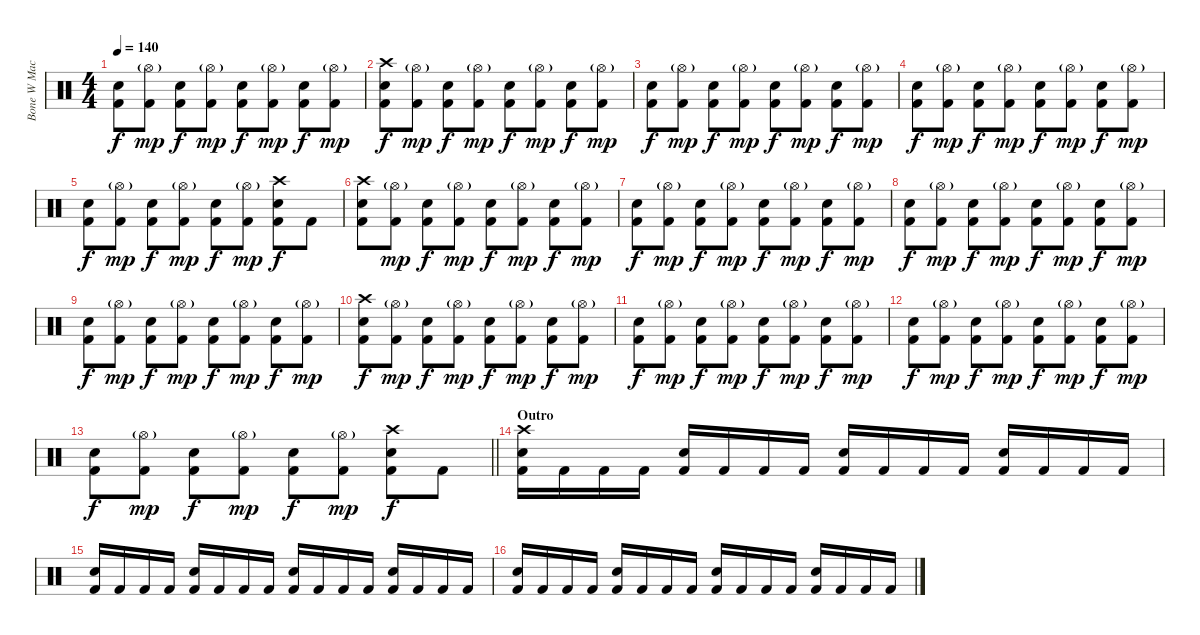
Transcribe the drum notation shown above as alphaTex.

\track ("Bone W Machine" "Bone W Mac") {instrument percussion}
\staff {score}
\articulation defaults
\ts (4 4)
\tempo 140
\clef neutral
\ks c
("Electric Snare (hit)" "Kick (hit) 2").8{dy f} ("Hi-Hat (open)"{g} "Kick (hit) 2").8{dy mp} ("Electric Snare (hit)" "Kick (hit) 2").8{dy f} ("Hi-Hat (open)"{g} "Kick (hit) 2").8{dy mp} ("Electric Snare (hit)" "Kick (hit) 2").8{dy f} ("Hi-Hat (open)"{g} "Kick (hit) 2").8{dy mp} ("Electric Snare (hit)" "Kick (hit) 2").8{dy f} ("Hi-Hat (open)"{g} "Kick (hit) 2").8{dy mp} |
("Crash high (hit)" "Electric Snare (hit)" "Kick (hit) 2").8{dy f} ("Hi-Hat (open)"{g} "Kick (hit) 2").8{dy mp} ("Electric Snare (hit)" "Kick (hit) 2").8{dy f} ("Hi-Hat (open)"{g} "Kick (hit) 2").8{dy mp} ("Electric Snare (hit)" "Kick (hit) 2").8{dy f} ("Hi-Hat (open)"{g} "Kick (hit) 2").8{dy mp} ("Electric Snare (hit)" "Kick (hit) 2").8{dy f} ("Hi-Hat (open)"{g} "Kick (hit) 2").8{dy mp} |
("Electric Snare (hit)" "Kick (hit) 2").8{dy f} ("Hi-Hat (open)"{g} "Kick (hit) 2").8{dy mp} ("Electric Snare (hit)" "Kick (hit) 2").8{dy f} ("Hi-Hat (open)"{g} "Kick (hit) 2").8{dy mp} ("Electric Snare (hit)" "Kick (hit) 2").8{dy f} ("Hi-Hat (open)"{g} "Kick (hit) 2").8{dy mp} ("Electric Snare (hit)" "Kick (hit) 2").8{dy f} ("Hi-Hat (open)"{g} "Kick (hit) 2").8{dy mp} |
("Electric Snare (hit)" "Kick (hit) 2").8{dy f} ("Hi-Hat (open)"{g} "Kick (hit) 2").8{dy mp} ("Electric Snare (hit)" "Kick (hit) 2").8{dy f} ("Hi-Hat (open)"{g} "Kick (hit) 2").8{dy mp} ("Electric Snare (hit)" "Kick (hit) 2").8{dy f} ("Hi-Hat (open)"{g} "Kick (hit) 2").8{dy mp} ("Electric Snare (hit)" "Kick (hit) 2").8{dy f} ("Hi-Hat (open)"{g} "Kick (hit) 2").8{dy mp} |
("Electric Snare (hit)" "Kick (hit) 2").8{dy f} ("Hi-Hat (open)"{g} "Kick (hit) 2").8{dy mp} ("Electric Snare (hit)" "Kick (hit) 2").8{dy f} ("Hi-Hat (open)"{g} "Kick (hit) 2").8{dy mp} ("Electric Snare (hit)" "Kick (hit) 2").8{dy f} ("Hi-Hat (open)"{g} "Kick (hit) 2").8{dy mp} ("Crash high (hit)" "Electric Snare (hit)" "Kick (hit) 2").8{dy f} "Kick (hit) 2".8 |
("Crash high (hit)" "Electric Snare (hit)" "Kick (hit) 2").8 ("Hi-Hat (open)"{g} "Kick (hit) 2").8{dy mp} ("Electric Snare (hit)" "Kick (hit) 2").8{dy f} ("Hi-Hat (open)"{g} "Kick (hit) 2").8{dy mp} ("Electric Snare (hit)" "Kick (hit) 2").8{dy f} ("Hi-Hat (open)"{g} "Kick (hit) 2").8{dy mp} ("Electric Snare (hit)" "Kick (hit) 2").8{dy f} ("Hi-Hat (open)"{g} "Kick (hit) 2").8{dy mp} |
("Electric Snare (hit)" "Kick (hit) 2").8{dy f} ("Hi-Hat (open)"{g} "Kick (hit) 2").8{dy mp} ("Electric Snare (hit)" "Kick (hit) 2").8{dy f} ("Hi-Hat (open)"{g} "Kick (hit) 2").8{dy mp} ("Electric Snare (hit)" "Kick (hit) 2").8{dy f} ("Hi-Hat (open)"{g} "Kick (hit) 2").8{dy mp} ("Electric Snare (hit)" "Kick (hit) 2").8{dy f} ("Hi-Hat (open)"{g} "Kick (hit) 2").8{dy mp} |
("Electric Snare (hit)" "Kick (hit) 2").8{dy f} ("Hi-Hat (open)"{g} "Kick (hit) 2").8{dy mp} ("Electric Snare (hit)" "Kick (hit) 2").8{dy f} ("Hi-Hat (open)"{g} "Kick (hit) 2").8{dy mp} ("Electric Snare (hit)" "Kick (hit) 2").8{dy f} ("Hi-Hat (open)"{g} "Kick (hit) 2").8{dy mp} ("Electric Snare (hit)" "Kick (hit) 2").8{dy f} ("Hi-Hat (open)"{g} "Kick (hit) 2").8{dy mp} |
("Electric Snare (hit)" "Kick (hit) 2").8{dy f} ("Hi-Hat (open)"{g} "Kick (hit) 2").8{dy mp} ("Electric Snare (hit)" "Kick (hit) 2").8{dy f} ("Hi-Hat (open)"{g} "Kick (hit) 2").8{dy mp} ("Electric Snare (hit)" "Kick (hit) 2").8{dy f} ("Hi-Hat (open)"{g} "Kick (hit) 2").8{dy mp} ("Electric Snare (hit)" "Kick (hit) 2").8{dy f} ("Hi-Hat (open)"{g} "Kick (hit) 2").8{dy mp} |
("Crash high (hit)" "Electric Snare (hit)" "Kick (hit) 2").8{dy f} ("Hi-Hat (open)"{g} "Kick (hit) 2").8{dy mp} ("Electric Snare (hit)" "Kick (hit) 2").8{dy f} ("Hi-Hat (open)"{g} "Kick (hit) 2").8{dy mp} ("Electric Snare (hit)" "Kick (hit) 2").8{dy f} ("Hi-Hat (open)"{g} "Kick (hit) 2").8{dy mp} ("Electric Snare (hit)" "Kick (hit) 2").8{dy f} ("Hi-Hat (open)"{g} "Kick (hit) 2").8{dy mp} |
("Electric Snare (hit)" "Kick (hit) 2").8{dy f} ("Hi-Hat (open)"{g} "Kick (hit) 2").8{dy mp} ("Electric Snare (hit)" "Kick (hit) 2").8{dy f} ("Hi-Hat (open)"{g} "Kick (hit) 2").8{dy mp} ("Electric Snare (hit)" "Kick (hit) 2").8{dy f} ("Hi-Hat (open)"{g} "Kick (hit) 2").8{dy mp} ("Electric Snare (hit)" "Kick (hit) 2").8{dy f} ("Hi-Hat (open)"{g} "Kick (hit) 2").8{dy mp} |
("Electric Snare (hit)" "Kick (hit) 2").8{dy f} ("Hi-Hat (open)"{g} "Kick (hit) 2").8{dy mp} ("Electric Snare (hit)" "Kick (hit) 2").8{dy f} ("Hi-Hat (open)"{g} "Kick (hit) 2").8{dy mp} ("Electric Snare (hit)" "Kick (hit) 2").8{dy f} ("Hi-Hat (open)"{g} "Kick (hit) 2").8{dy mp} ("Electric Snare (hit)" "Kick (hit) 2").8{dy f} ("Hi-Hat (open)"{g} "Kick (hit) 2").8{dy mp} |
\barLineRight lightlight
("Electric Snare (hit)" "Kick (hit) 2").8{dy f} ("Hi-Hat (open)"{g} "Kick (hit) 2").8{dy mp} ("Electric Snare (hit)" "Kick (hit) 2").8{dy f} ("Hi-Hat (open)"{g} "Kick (hit) 2").8{dy mp} ("Electric Snare (hit)" "Kick (hit) 2").8{dy f} ("Hi-Hat (open)"{g} "Kick (hit) 2").8{dy mp} ("Crash high (hit)" "Electric Snare (hit)" "Kick (hit) 2").8{dy f} "Kick (hit) 2".8 |
\section ("" "Outro")
("Crash high (hit)" "Electric Snare (hit)" "Kick (hit) 2").16 "Kick (hit) 2".16 "Kick (hit) 2".16 "Kick (hit) 2".16 ("Electric Snare (hit)" "Kick (hit) 2").16 "Kick (hit) 2".16 "Kick (hit) 2".16 "Kick (hit) 2".16 ("Electric Snare (hit)" "Kick (hit) 2").16 "Kick (hit) 2".16 "Kick (hit) 2".16 "Kick (hit) 2".16 ("Electric Snare (hit)" "Kick (hit) 2").16 "Kick (hit) 2".16 "Kick (hit) 2".16 "Kick (hit) 2".16 |
("Electric Snare (hit)" "Kick (hit) 2").16 "Kick (hit) 2".16 "Kick (hit) 2".16 "Kick (hit) 2".16 ("Electric Snare (hit)" "Kick (hit) 2").16 "Kick (hit) 2".16 "Kick (hit) 2".16 "Kick (hit) 2".16 ("Electric Snare (hit)" "Kick (hit) 2").16 "Kick (hit) 2".16 "Kick (hit) 2".16 "Kick (hit) 2".16 ("Electric Snare (hit)" "Kick (hit) 2").16 "Kick (hit) 2".16 "Kick (hit) 2".16 "Kick (hit) 2".16 |
("Electric Snare (hit)" "Kick (hit) 2").16 "Kick (hit) 2".16 "Kick (hit) 2".16 "Kick (hit) 2".16 ("Electric Snare (hit)" "Kick (hit) 2").16 "Kick (hit) 2".16 "Kick (hit) 2".16 "Kick (hit) 2".16 ("Electric Snare (hit)" "Kick (hit) 2").16 "Kick (hit) 2".16 "Kick (hit) 2".16 "Kick (hit) 2".16 ("Electric Snare (hit)" "Kick (hit) 2").16 "Kick (hit) 2".16 "Kick (hit) 2".16 "Kick (hit) 2".16
